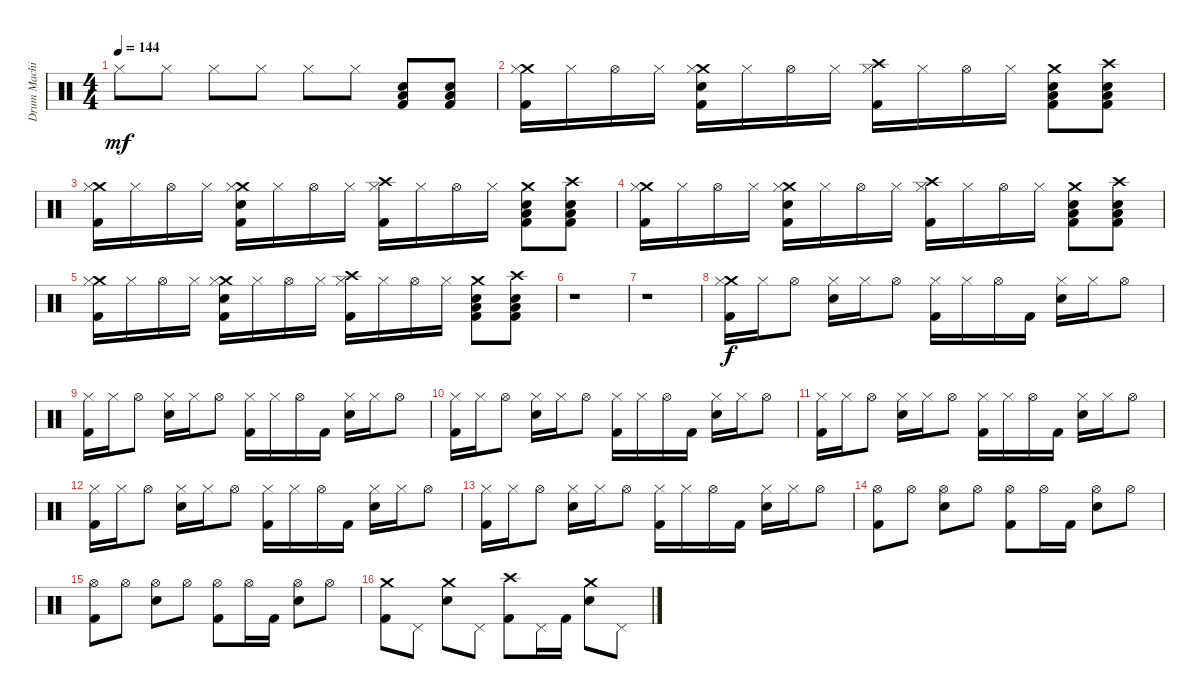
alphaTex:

\track ("Drum Machine" "Drum Machi") {instrument percussion}
\staff {score}
\articulation defaults
\ts (4 4)
\tempo 144
\clef neutral
\ks c "Hi-Hat (closed)".8{dy mf} "Hi-Hat (closed)".8 "Hi-Hat (closed)".8 "Hi-Hat (closed)".8 "Hi-Hat (closed)".8 "Hi-Hat (closed)".8
("Hand Clap (hit)" "Low Floor Tom (hit)" "Kick (hit) 2").8 ("Hand Clap (hit)" "Low Floor Tom (hit)" "Kick (hit) 2").8 |
("Crash medium (hit)" "Hi-Hat (closed)" "Kick (hit) 2").16 "Hi-Hat (closed)".16 "Hi-Hat (open)".16 "Hi-Hat (closed)".16 ("Crash medium (hit)" "Hi-Hat (closed)" "Hand Clap (hit)" "Kick (hit) 2").16 "Hi-Hat (closed)".16 "Hi-Hat (open)".16 "Hi-Hat (closed)".16 ("Crash high (hit)" "Hi-Hat (closed)" "Kick (hit) 2").16 "Hi-Hat (closed)".16 "Hi-Hat (open)".16 "Hi-Hat (closed)".16 ("Crash medium (hit)" "Hand Clap (hit)" "Low Floor Tom (hit)" "Kick (hit) 2").8 ("Crash high (hit)" "Hand Clap (hit)" "Low Floor Tom (hit)" "Kick (hit) 2").8 |
("Crash medium (hit)" "Hi-Hat (closed)" "Kick (hit) 2").16 "Hi-Hat (closed)".16 "Hi-Hat (open)".16 "Hi-Hat (closed)".16 ("Crash medium (hit)" "Hi-Hat (closed)" "Hand Clap (hit)" "Kick (hit) 2").16 "Hi-Hat (closed)".16 "Hi-Hat (open)".16 "Hi-Hat (closed)".16 ("Crash high (hit)" "Hi-Hat (closed)" "Kick (hit) 2").16 "Hi-Hat (closed)".16 "Hi-Hat (open)".16 "Hi-Hat (closed)".16 ("Crash medium (hit)" "Hand Clap (hit)" "Low Floor Tom (hit)" "Kick (hit) 2").8 ("Crash high (hit)" "Hand Clap (hit)" "Low Floor Tom (hit)" "Kick (hit) 2").8 |
("Crash medium (hit)" "Hi-Hat (closed)" "Kick (hit) 2").16 "Hi-Hat (closed)".16 "Hi-Hat (open)".16 "Hi-Hat (closed)".16 ("Crash medium (hit)" "Hi-Hat (closed)" "Hand Clap (hit)" "Kick (hit) 2").16 "Hi-Hat (closed)".16 "Hi-Hat (open)".16 "Hi-Hat (closed)".16 ("Crash high (hit)" "Hi-Hat (closed)" "Kick (hit) 2").16 "Hi-Hat (closed)".16 "Hi-Hat (open)".16 "Hi-Hat (closed)".16 ("Crash medium (hit)" "Hand Clap (hit)" "Low Floor Tom (hit)" "Kick (hit) 2").8 ("Crash high (hit)" "Hand Clap (hit)" "Low Floor Tom (hit)" "Kick (hit) 2").8 |
("Crash medium (hit)" "Hi-Hat (closed)" "Kick (hit) 2").16 "Hi-Hat (closed)".16 "Hi-Hat (open)".16 "Hi-Hat (closed)".16 ("Crash medium (hit)" "Hi-Hat (closed)" "Hand Clap (hit)" "Kick (hit) 2").16 "Hi-Hat (closed)".16 "Hi-Hat (open)".16 "Hi-Hat (closed)".16 ("Crash high (hit)" "Hi-Hat (closed)" "Kick (hit) 2").16 "Hi-Hat (closed)".16 "Hi-Hat (open)".16 "Hi-Hat (closed)".16 ("Crash medium (hit)" "Hand Clap (hit)" "Low Floor Tom (hit)" "Kick (hit) 2").8 ("Crash high (hit)" "Hand Clap (hit)" "Low Floor Tom (hit)" "Kick (hit) 2").8 |
r.1 |
r.1 |
("Crash medium (hit)" "Hi-Hat (closed)" "Kick (hit) 2").16{dy f} "Hi-Hat (closed)".16 "Hi-Hat (open)".8 ("Hi-Hat (closed)" "Hand Clap (hit)").16 "Hi-Hat (closed)".16 "Hi-Hat (open)".8 ("Hi-Hat (closed)" "Kick (hit) 2").16 "Hi-Hat (closed)".16 "Hi-Hat (open)".16 "Kick (hit) 2".16 ("Hi-Hat (closed)" "Hand Clap (hit)").16 "Hi-Hat (closed)".16 "Hi-Hat (open)".8 |
("Hi-Hat (closed)" "Kick (hit) 2").16 "Hi-Hat (closed)".16 "Hi-Hat (open)".8 ("Hi-Hat (closed)" "Hand Clap (hit)").16 "Hi-Hat (closed)".16 "Hi-Hat (open)".8 ("Hi-Hat (closed)" "Kick (hit) 2").16 "Hi-Hat (closed)".16 "Hi-Hat (open)".16 "Kick (hit) 2".16 ("Hi-Hat (closed)" "Hand Clap (hit)").16 "Hi-Hat (closed)".16 "Hi-Hat (open)".8 |
("Hi-Hat (closed)" "Kick (hit) 2").16 "Hi-Hat (closed)".16 "Hi-Hat (open)".8 ("Hi-Hat (closed)" "Hand Clap (hit)").16 "Hi-Hat (closed)".16 "Hi-Hat (open)".8 ("Hi-Hat (closed)" "Kick (hit) 2").16 "Hi-Hat (closed)".16 "Hi-Hat (open)".16 "Kick (hit) 2".16 ("Hi-Hat (closed)" "Hand Clap (hit)").16 "Hi-Hat (closed)".16 "Hi-Hat (open)".8 |
("Hi-Hat (closed)" "Kick (hit) 2").16 "Hi-Hat (closed)".16 "Hi-Hat (open)".8 ("Hi-Hat (closed)" "Hand Clap (hit)").16 "Hi-Hat (closed)".16 "Hi-Hat (open)".8 ("Hi-Hat (closed)" "Kick (hit) 2").16 "Hi-Hat (closed)".16 "Hi-Hat (open)".16 "Kick (hit) 2".16 ("Hi-Hat (closed)" "Hand Clap (hit)").16 "Hi-Hat (closed)".16 "Hi-Hat (open)".8 |
("Hi-Hat (closed)" "Kick (hit) 2").16 "Hi-Hat (closed)".16 "Hi-Hat (open)".8 ("Hi-Hat (closed)" "Hand Clap (hit)").16 "Hi-Hat (closed)".16 "Hi-Hat (open)".8 ("Hi-Hat (closed)" "Kick (hit) 2").16 "Hi-Hat (closed)".16 "Hi-Hat (open)".16 "Kick (hit) 2".16 ("Hi-Hat (closed)" "Hand Clap (hit)").16 "Hi-Hat (closed)".16 "Hi-Hat (open)".8 |
("Hi-Hat (closed)" "Kick (hit) 2").16 "Hi-Hat (closed)".16 "Hi-Hat (open)".8 ("Hi-Hat (closed)" "Hand Clap (hit)").16 "Hi-Hat (closed)".16 "Hi-Hat (open)".8 ("Hi-Hat (closed)" "Kick (hit) 2").16 "Hi-Hat (closed)".16 "Hi-Hat (open)".16 "Kick (hit) 2".16 ("Hi-Hat (closed)" "Hand Clap (hit)").16 "Hi-Hat (closed)".16 "Hi-Hat (open)".8 |
("Hi-Hat (open)" "Kick (hit) 2").8 "Hi-Hat (open)".8 ("Hi-Hat (open)" "Hand Clap (hit)").8 "Hi-Hat (open)".8 ("Hi-Hat (open)" "Kick (hit) 2").8 "Hi-Hat (open)".16 "Kick (hit) 2".16 ("Hi-Hat (open)" "Hand Clap (hit)").8 "Hi-Hat (open)".8 |
("Hi-Hat (open)" "Kick (hit) 2").8 "Hi-Hat (open)".8 ("Hi-Hat (open)" "Hand Clap (hit)").8 "Hi-Hat (open)".8 ("Hi-Hat (open)" "Kick (hit) 2").8 "Hi-Hat (open)".16 "Kick (hit) 2".16 ("Hi-Hat (open)" "Hand Clap (hit)").8 "Hi-Hat (open)".8 |
("Crash medium (hit)" "Kick (hit) 2").8 "Pedal Hi-Hat (hit)".8 ("Crash medium (hit)" "Hand Clap (hit)").8 "Pedal Hi-Hat (hit)".8 ("Crash high (hit)" "Kick (hit) 2").8 "Pedal Hi-Hat (hit)".16 "Kick (hit) 2".16 ("Crash medium (hit)" "Hand Clap (hit)").8 "Pedal Hi-Hat (hit)".8
